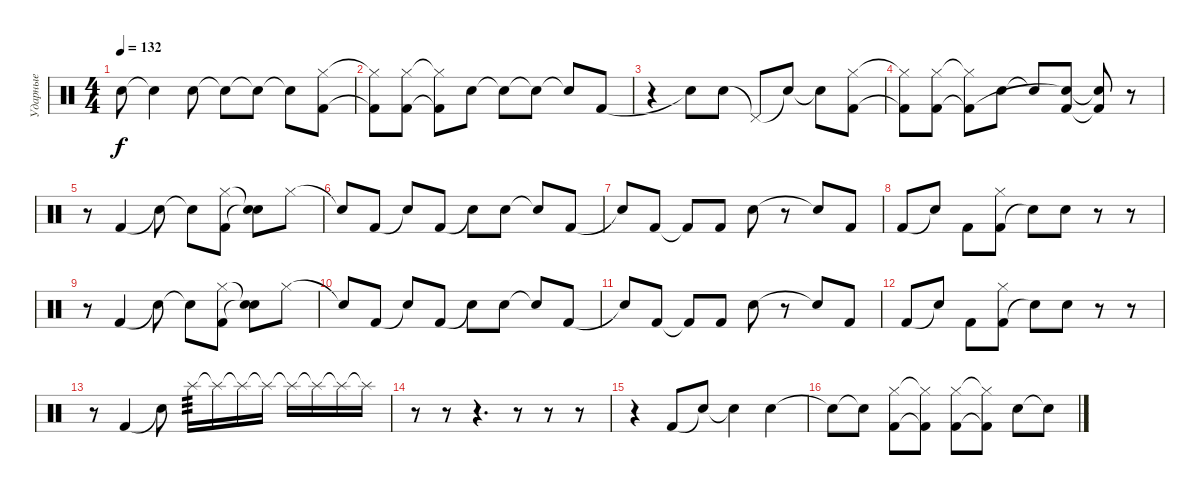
\track ("Ударные" "Ударные") {instrument percussion}
\staff {score}
\articulation defaults
\ts (4 4)
\tempo 132
\clef neutral
\ks c "Snare (hit)"{t}.8{dy f} "Snare (hit)"{t}.4 "Snare (hit) 2".8 "Snare (hit)"{t}.8 "Snare (hit)"{t}.8 "Snare (hit)"{t}.8
("Hi-Hat (closed)" "Kick (hit) 2").8 |
("Hi-Hat (closed)"{t} "Kick (hit) 2"{t}).8 ("Hi-Hat (closed)" "Kick (hit) 2").8 ("Hi-Hat (closed)"{t} "Kick (hit) 2"{t}).8 "Snare (hit) 2".8 "Snare (hit)"{t}.8 "Snare (hit)"{t}.8 "Snare (hit)"{t}.8 "Kick (hit) 2".8 |
r.4 "Snare (hit)"{t}.8 "Snare (hit) 2".8 "Pedal Hi-Hat (hit)"{t}.8 "Snare (hit)"{t}.8 "Snare (hit)"{t}.8 ("Hi-Hat (closed)" "Kick (hit) 2").8 |
("Hi-Hat (closed)"{t} "Kick (hit) 2"{t}).8 ("Hi-Hat (closed)" "Kick (hit) 2").8 ("Hi-Hat (closed)"{t} "Kick (hit) 2"{t}).8 "Snare (hit) 2".8 "Snare (hit)"{t}.8 ("Kick (hit) 2" "Snare (hit)"{t}).8 ("Kick (hit) 2"{t} "Snare (hit)"{t}).8 r.8 |
r.8 "Kick (hit) 2".4 "Snare (hit)"{t}.8 "Snare (hit)"{t}.8 ("Hi-Hat (closed)" "Kick (hit) 2").8 ("Snare (hit)"{t} "Snare (hit)"{t}).8 "Hi-Hat (closed)".8 |
"Snare (hit)"{t}.8 "Kick (hit) 2".8 "Snare (hit)"{t}.8 "Kick (hit) 2".8 "Snare (hit)"{t}.8 "Snare (hit) 2".8 "Snare (hit)"{t}.8 "Kick (hit) 2".8 |
"Snare (hit)"{t}.8 "Kick (hit) 2".8 "Kick (hit) 2"{t}.8 "Kick (hit) 2".8 "Snare (hit) 2".8 r.8 "Snare (hit)"{t}.8 "Kick (hit) 2".8 |
"Kick (hit) 2".8 "Snare (hit)"{t}.8 "Kick (hit) 2".8 ("Kick (hit) 2" "Hi-Hat (closed)").8 "Snare (hit) 2"{t}.8 "Snare (hit) 2".8 r.8 r.8 |
r.8 "Kick (hit) 2".4 "Snare (hit)"{t}.8 "Snare (hit)"{t}.8 ("Hi-Hat (closed)" "Kick (hit) 2").8 ("Snare (hit)"{t} "Snare (hit)"{t}).8 "Hi-Hat (closed)".8 |
"Snare (hit)"{t}.8 "Kick (hit) 2".8 "Snare (hit)"{t}.8 "Kick (hit) 2".8 "Snare (hit)"{t}.8 "Snare (hit) 2".8 "Snare (hit)"{t}.8 "Kick (hit) 2".8 |
"Snare (hit)"{t}.8 "Kick (hit) 2".8 "Kick (hit) 2"{t}.8 "Kick (hit) 2".8 "Snare (hit) 2".8 r.8 "Snare (hit)"{t}.8 "Kick (hit) 2".8 |
"Kick (hit) 2".8 "Snare (hit)"{t}.8 "Kick (hit) 2".8 ("Kick (hit) 2" "Hi-Hat (closed)").8 "Snare (hit) 2"{t}.8 "Snare (hit) 2".8 r.8 r.8 |
r.8 "Kick (hit) 2".4 "Snare (hit)"{t}.8 "Splash (hit)".16{tp 3 volume 1} "Splash (hit)"{t}.16 "Splash (hit)"{t}.16 "Splash (hit)"{t}.16 "Splash (hit)"{t}.16 "Splash (hit)"{t}.16 "Splash (hit)"{t}.16 "Splash (hit)"{t}.16 |
r.8 r.8 r.4{d} r.8 r.8 r.8 |
r.4 "Kick (hit) 2".8{volume 10} "Snare (hit)"{t}.8 "Snare (hit)"{t}.4 "Snare (hit) 2".4 |
"Snare (hit)"{t}.8 "Snare (hit)"{t}.8 ("Hi-Hat (closed)" "Kick (hit) 2").8 ("Hi-Hat (closed)"{t} "Kick (hit) 2"{t}).8 ("Hi-Hat (closed)" "Kick (hit) 2").8 ("Hi-Hat (closed)"{t} "Kick (hit) 2"{t}).8 "Snare (hit) 2".8 "Snare (hit)"{t}.8
